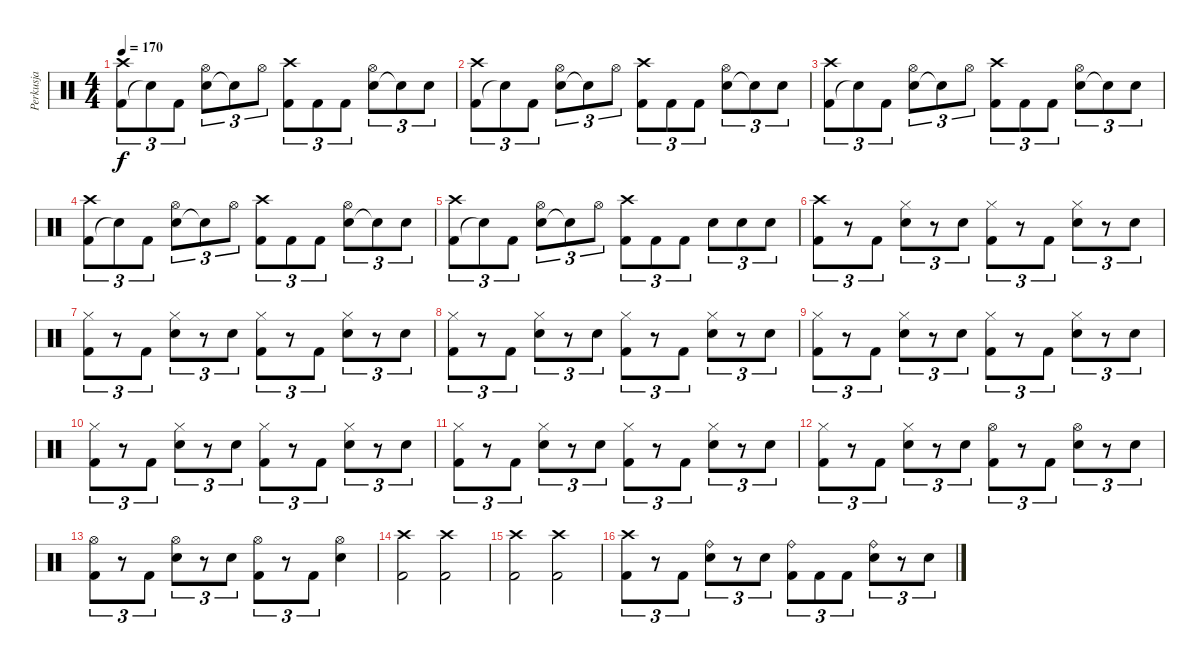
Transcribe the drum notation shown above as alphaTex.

\track ("Perkusja" "Perkusja") {instrument percussion}
\staff {score}
\articulation defaults
\ts (4 4)
\tempo 170
\clef neutral
\ks c
("Kick (hit) 2" "Crash high (hit)").8{tu (3 2) dy f} "Snare (hit)"{t}.8{tu (3 2)} "Kick (hit) 2".8{tu (3 2)} ("Electric Snare (hit)" "Hi-Hat (open)").8{tu (3 2)} "Snare (hit)"{t}.8{tu (3 2)} "Hi-Hat (open)".8{tu (3 2)} ("Kick (hit) 2" "Crash high (hit)").8{tu (3 2)} "Kick (hit) 2".8{tu (3 2)} "Kick (hit) 2".8{tu (3 2)} ("Electric Snare (hit)" "Hi-Hat (open)").8{tu (3 2)} "Snare (hit)"{t}.8{tu (3 2)} "Electric Snare (hit)".8{tu (3 2)} |
("Kick (hit) 2" "Crash high (hit)").8{tu (3 2)} "Snare (hit)"{t}.8{tu (3 2)} "Kick (hit) 2".8{tu (3 2)} ("Electric Snare (hit)" "Hi-Hat (open)").8{tu (3 2)} "Snare (hit)"{t}.8{tu (3 2)} "Hi-Hat (open)".8{tu (3 2)} ("Kick (hit) 2" "Crash high (hit)").8{tu (3 2)} "Kick (hit) 2".8{tu (3 2)} "Kick (hit) 2".8{tu (3 2)} ("Electric Snare (hit)" "Hi-Hat (open)").8{tu (3 2)} "Snare (hit)"{t}.8{tu (3 2)} "Electric Snare (hit)".8{tu (3 2)} |
("Kick (hit) 2" "Crash high (hit)").8{tu (3 2)} "Snare (hit)"{t}.8{tu (3 2)} "Kick (hit) 2".8{tu (3 2)} ("Electric Snare (hit)" "Hi-Hat (open)").8{tu (3 2)} "Snare (hit)"{t}.8{tu (3 2)} "Hi-Hat (open)".8{tu (3 2)} ("Kick (hit) 2" "Crash high (hit)").8{tu (3 2)} "Kick (hit) 2".8{tu (3 2)} "Kick (hit) 2".8{tu (3 2)} ("Electric Snare (hit)" "Hi-Hat (open)").8{tu (3 2)} "Snare (hit)"{t}.8{tu (3 2)} "Electric Snare (hit)".8{tu (3 2)} |
("Kick (hit) 2" "Crash high (hit)").8{tu (3 2)} "Snare (hit)"{t}.8{tu (3 2)} "Kick (hit) 2".8{tu (3 2)} ("Electric Snare (hit)" "Hi-Hat (open)").8{tu (3 2)} "Snare (hit)"{t}.8{tu (3 2)} "Hi-Hat (open)".8{tu (3 2)} ("Kick (hit) 2" "Crash high (hit)").8{tu (3 2)} "Kick (hit) 2".8{tu (3 2)} "Kick (hit) 2".8{tu (3 2)} ("Electric Snare (hit)" "Hi-Hat (open)").8{tu (3 2)} "Snare (hit)"{t}.8{tu (3 2)} "Electric Snare (hit)".8{tu (3 2)} |
("Kick (hit) 2" "Crash high (hit)").8{tu (3 2)} "Snare (hit)"{t}.8{tu (3 2)} "Kick (hit) 2".8{tu (3 2)} ("Electric Snare (hit)" "Hi-Hat (open)").8{tu (3 2)} "Snare (hit)"{t}.8{tu (3 2)} "Hi-Hat (open)".8{tu (3 2)} ("Kick (hit) 2" "Crash high (hit)").8{tu (3 2)} "Kick (hit) 2".8{tu (3 2)} "Kick (hit) 2".8{tu (3 2)} "Electric Snare (hit)".8{tu (3 2)} "Electric Snare (hit)".8{tu (3 2)} "Electric Snare (hit)".8{tu (3 2)} |
("Kick (hit) 2" "Crash high (hit)").8{tu (3 2)} r.8{tu (3 2)} "Kick (hit) 2".8{tu (3 2)} ("Electric Snare (hit)" "Hi-Hat (closed)").8{tu (3 2)} r.8{tu (3 2)} "Electric Snare (hit)".8{tu (3 2)} ("Kick (hit) 2" "Hi-Hat (closed)").8{tu (3 2)} r.8{tu (3 2)} "Kick (hit) 2".8{tu (3 2)} ("Electric Snare (hit)" "Hi-Hat (closed)").8{tu (3 2)} r.8{tu (3 2)} "Electric Snare (hit)".8{tu (3 2)} |
("Kick (hit) 2" "Hi-Hat (closed)").8{tu (3 2)} r.8{tu (3 2)} "Kick (hit) 2".8{tu (3 2)} ("Electric Snare (hit)" "Hi-Hat (closed)").8{tu (3 2)} r.8{tu (3 2)} "Electric Snare (hit)".8{tu (3 2)} ("Kick (hit) 2" "Hi-Hat (closed)").8{tu (3 2)} r.8{tu (3 2)} "Kick (hit) 2".8{tu (3 2)} ("Electric Snare (hit)" "Hi-Hat (closed)").8{tu (3 2)} r.8{tu (3 2)} "Electric Snare (hit)".8{tu (3 2)} |
("Kick (hit) 2" "Hi-Hat (closed)").8{tu (3 2)} r.8{tu (3 2)} "Kick (hit) 2".8{tu (3 2)} ("Electric Snare (hit)" "Hi-Hat (closed)").8{tu (3 2)} r.8{tu (3 2)} "Electric Snare (hit)".8{tu (3 2)} ("Kick (hit) 2" "Hi-Hat (closed)").8{tu (3 2)} r.8{tu (3 2)} "Kick (hit) 2".8{tu (3 2)} ("Electric Snare (hit)" "Hi-Hat (closed)").8{tu (3 2)} r.8{tu (3 2)} "Electric Snare (hit)".8{tu (3 2)} |
("Kick (hit) 2" "Hi-Hat (closed)").8{tu (3 2)} r.8{tu (3 2)} "Kick (hit) 2".8{tu (3 2)} ("Electric Snare (hit)" "Hi-Hat (closed)").8{tu (3 2)} r.8{tu (3 2)} "Electric Snare (hit)".8{tu (3 2)} ("Kick (hit) 2" "Hi-Hat (closed)").8{tu (3 2)} r.8{tu (3 2)} "Kick (hit) 2".8{tu (3 2)} ("Electric Snare (hit)" "Hi-Hat (closed)").8{tu (3 2)} r.8{tu (3 2)} "Electric Snare (hit)".8{tu (3 2)} |
("Kick (hit) 2" "Hi-Hat (closed)").8{tu (3 2)} r.8{tu (3 2)} "Kick (hit) 2".8{tu (3 2)} ("Electric Snare (hit)" "Hi-Hat (closed)").8{tu (3 2)} r.8{tu (3 2)} "Electric Snare (hit)".8{tu (3 2)} ("Kick (hit) 2" "Hi-Hat (closed)").8{tu (3 2)} r.8{tu (3 2)} "Kick (hit) 2".8{tu (3 2)} ("Electric Snare (hit)" "Hi-Hat (closed)").8{tu (3 2)} r.8{tu (3 2)} "Electric Snare (hit)".8{tu (3 2)} |
("Kick (hit) 2" "Hi-Hat (closed)").8{tu (3 2)} r.8{tu (3 2)} "Kick (hit) 2".8{tu (3 2)} ("Electric Snare (hit)" "Hi-Hat (closed)").8{tu (3 2)} r.8{tu (3 2)} "Electric Snare (hit)".8{tu (3 2)} ("Kick (hit) 2" "Hi-Hat (closed)").8{tu (3 2)} r.8{tu (3 2)} "Kick (hit) 2".8{tu (3 2)} ("Electric Snare (hit)" "Hi-Hat (closed)").8{tu (3 2)} r.8{tu (3 2)} "Electric Snare (hit)".8{tu (3 2)} |
("Kick (hit) 2" "Hi-Hat (closed)").8{tu (3 2)} r.8{tu (3 2)} "Kick (hit) 2".8{tu (3 2)} ("Electric Snare (hit)" "Hi-Hat (closed)").8{tu (3 2)} r.8{tu (3 2)} "Electric Snare (hit)".8{tu (3 2)} ("Kick (hit) 2" "Hi-Hat (open)").8{tu (3 2)} r.8{tu (3 2)} "Kick (hit) 2".8{tu (3 2)} ("Electric Snare (hit)" "Hi-Hat (open)").8{tu (3 2)} r.8{tu (3 2)} "Electric Snare (hit)".8{tu (3 2)} |
("Kick (hit) 2" "Hi-Hat (open)").8{tu (3 2)} r.8{tu (3 2)} "Kick (hit) 2".8{tu (3 2)} ("Electric Snare (hit)" "Hi-Hat (open)").8{tu (3 2)} r.8{tu (3 2)} "Electric Snare (hit)".8{tu (3 2)} ("Kick (hit) 2" "Hi-Hat (open)").8{tu (3 2)} r.8{tu (3 2)} "Kick (hit) 2".8{tu (3 2)} ("Electric Snare (hit)" "Hi-Hat (open)").4 |
("Kick (hit) 2" "Crash high (hit)").2 ("Kick (hit) 2" "Crash high (hit)").2 |
("Kick (hit) 2" "Crash high (hit)").2 ("Kick (hit) 2" "Crash high (hit)").2 |
("Kick (hit) 2" "Crash high (hit)").8{tu (3 2)} r.8{tu (3 2)} "Kick (hit) 2".8{tu (3 2)} ("Electric Snare (hit)" "Ride (bell)").8{tu (3 2)} r.8{tu (3 2)} "Electric Snare (hit)".8{tu (3 2)} ("Kick (hit) 2" "Ride (bell)").8{tu (3 2)} "Kick (hit) 2".8{tu (3 2)} "Kick (hit) 2".8{tu (3 2)} ("Electric Snare (hit)" "Ride (bell)").8{tu (3 2)} r.8{tu (3 2)} "Electric Snare (hit)".8{tu (3 2)}
